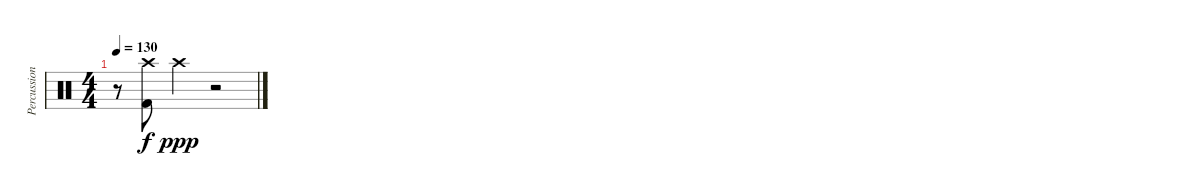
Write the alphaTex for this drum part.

\track ("Percussion" "Percussion") {instrument percussion}
\staff {score}
\articulation defaults
\ts (4 4)
\tempo 130
\clef neutral
\ks c
r.8{dy ppp} ("Crash high (hit)" "Kick (hit) 2").8{dy f} "Crash high (hit)".4{dy ppp} r.2
